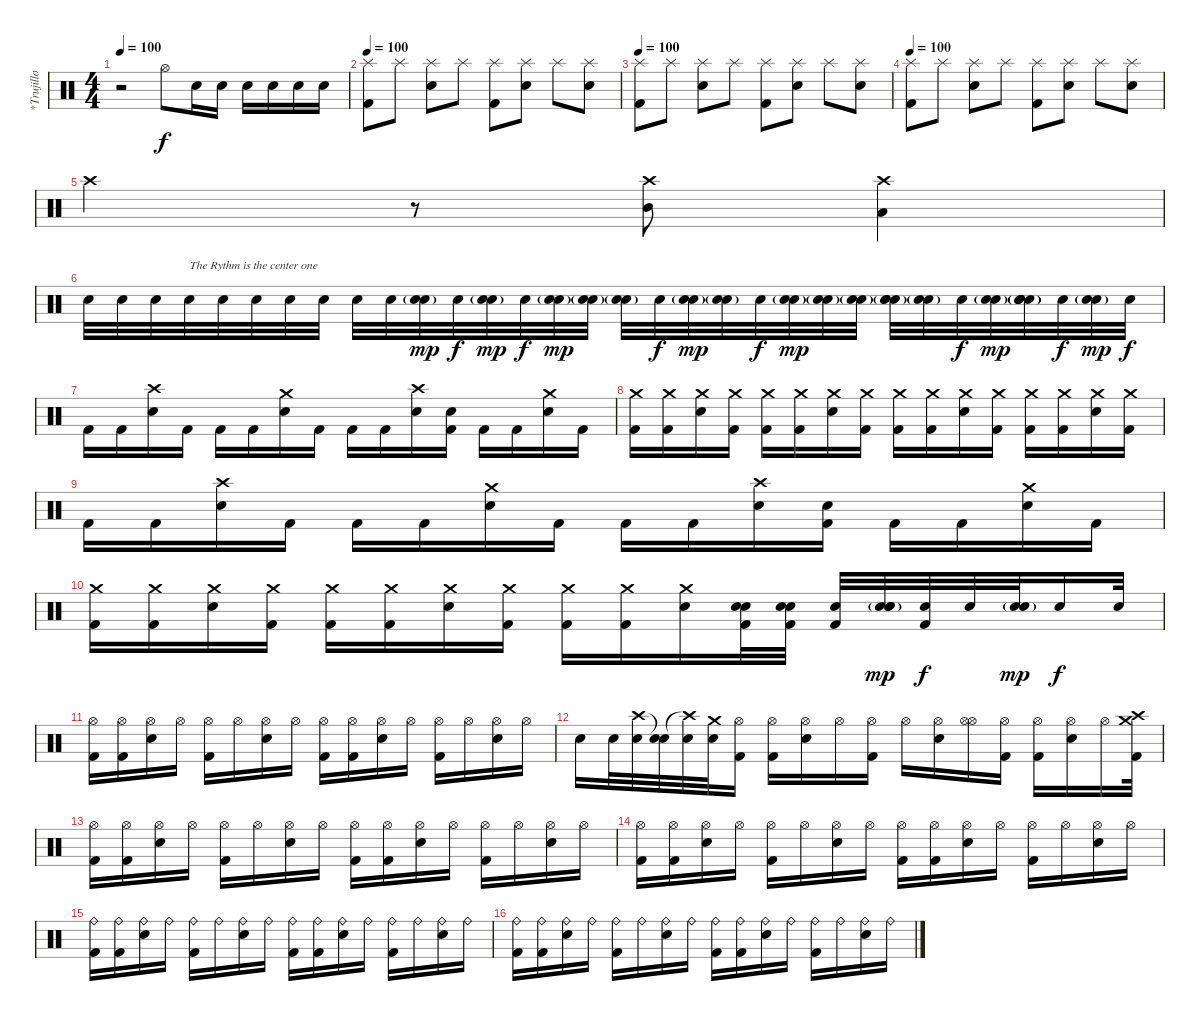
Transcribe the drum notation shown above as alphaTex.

\track ("*Trujillo" "*Trujillo") {instrument percussion}
\staff {score}
\articulation defaults
\ts (4 4)
\tempo 100
\clef neutral
\ks c
r.2{dy f} "Hi-Hat (open)".8 "Electric Snare (hit)".16 "Electric Snare (hit)".16 "Electric Snare (hit)".16 "Electric Snare (hit)".16 "Electric Snare (hit)".16 "Electric Snare (hit)".16 |
\tempo 100
("Splash (hit)" "Kick (hit) 2").8 "Splash (hit)".8 ("Splash (hit)" "Electric Snare (hit)").8 "Splash (hit)".8 ("Splash (hit)" "Kick (hit) 2").8 ("Splash (hit)" "Electric Snare (hit)").8 "Splash (hit)".8 ("Splash (hit)" "Electric Snare (hit)").8 |
\tempo 100
("Splash (hit)" "Kick (hit) 2").8 "Splash (hit)".8 ("Splash (hit)" "Electric Snare (hit)").8 "Splash (hit)".8 ("Splash (hit)" "Kick (hit) 2").8 ("Splash (hit)" "Electric Snare (hit)").8 "Splash (hit)".8 ("Splash (hit)" "Electric Snare (hit)").8 |
\tempo 100
("Splash (hit)" "Kick (hit) 2").8 "Splash (hit)".8 ("Splash (hit)" "Electric Snare (hit)").8 "Splash (hit)".8 ("Splash (hit)" "Kick (hit) 2").8 ("Splash (hit)" "Electric Snare (hit)").8 "Splash (hit)".8 ("Splash (hit)" "Electric Snare (hit)").8 |
"Crash high (hit)".2 r.8 ("Crash high (hit)" "Mid Tom (hit)").8 ("Crash high (hit)" "Low Tom (hit)").4{volume 0} |
"Electric Snare (hit)".32{volume 16} "Electric Snare (hit)".32 "Electric Snare (hit)".32 "Electric Snare (hit)".32{txt "The Rythm is the center one"} "Electric Snare (hit)".32 "Electric Snare (hit)".32 "Electric Snare (hit)".32 "Electric Snare (hit)".32 "Electric Snare (hit)".32 "Electric Snare (hit)".32 ("Electric Snare (hit)" "Electric Snare (hit)"{g}).32{dy mp} "Electric Snare (hit)".32{dy f} ("Electric Snare (hit)"{g} "Electric Snare (hit)").32{dy mp} "Electric Snare (hit)".32{dy f} ("Electric Snare (hit)" "Electric Snare (hit)"{g}).32{dy mp} ("Electric Snare (hit)"{g} "Electric Snare (hit)").32 ("Electric Snare (hit)" "Electric Snare (hit)"{g}).32 "Electric Snare (hit)".32{dy f} ("Electric Snare (hit)" "Electric Snare (hit)"{g}).32{dy mp} ("Electric Snare (hit)"{g} "Electric Snare (hit)").32 "Electric Snare (hit)".32{dy f} ("Electric Snare (hit)" "Electric Snare (hit)"{g}).32{dy mp} ("Electric Snare (hit)"{g} "Electric Snare (hit)").32 ("Electric Snare (hit)" "Electric Snare (hit)"{g}).32 ("Electric Snare (hit)"{g} "Electric Snare (hit)"{g} "Electric Snare (hit)").32 ("Electric Snare (hit)" "Electric Snare (hit)"{g}).32 "Electric Snare (hit)".32{dy f} ("Electric Snare (hit)"{g} "Electric Snare (hit)").32{dy mp} ("Electric Snare (hit)"{g} "Electric Snare (hit)"{g} "Electric Snare (hit)" "Electric Snare (hit)"{g}).32 "Electric Snare (hit)".32{dy f} ("Electric Snare (hit)" "Electric Snare (hit)"{g}).32{dy mp} "Electric Snare (hit)".32{dy f} |
"Kick (hit) 2".16 "Kick (hit) 2".16 ("Crash high (hit)" "Electric Snare (hit)").16 "Kick (hit) 2".16 "Kick (hit) 2".16 "Kick (hit) 2".16 ("Crash medium (hit)" "Electric Snare (hit)").16 "Kick (hit) 2".16 "Kick (hit) 2".16 "Kick (hit) 2".16 ("Crash high (hit)" "Electric Snare (hit)").16 ("Snare (hit)" "Kick (hit) 2").16 "Kick (hit) 2".16 "Kick (hit) 2".16 ("Crash medium (hit)" "Electric Snare (hit)").16 "Kick (hit) 2".16 |
("Crash medium (hit)" "Kick (hit) 2").16 ("Crash medium (hit)"{x} "Kick (hit) 2").16 ("Crash medium (hit)" "Electric Snare (hit)").16 ("Crash medium (hit)" "Kick (hit) 2").16 ("Crash medium (hit)"{x} "Kick (hit) 2").16 ("Crash medium (hit)"{x} "Kick (hit) 2").16 ("Crash medium (hit)" "Electric Snare (hit)").16 ("Crash medium (hit)"{x} "Kick (hit) 2").16 ("Crash medium (hit)"{x} "Kick (hit) 2").16 ("Crash medium (hit)" "Kick (hit) 2").16 ("Crash medium (hit)" "Electric Snare (hit)").16 ("Crash medium (hit)"{x} "Kick (hit) 2").16 ("Crash medium (hit)" "Kick (hit) 2").16 ("Crash medium (hit)"{x} "Kick (hit) 2").16 ("Crash medium (hit)" "Electric Snare (hit)").16 ("Crash medium (hit)" "Kick (hit) 2").16 |
"Kick (hit) 2".16 "Kick (hit) 2".16 ("Crash high (hit)" "Electric Snare (hit)").16 "Kick (hit) 2".16 "Kick (hit) 2".16 "Kick (hit) 2".16 ("Crash medium (hit)" "Electric Snare (hit)").16 "Kick (hit) 2".16 "Kick (hit) 2".16 "Kick (hit) 2".16 ("Crash high (hit)" "Electric Snare (hit)").16 ("Snare (hit)" "Kick (hit) 2").16 "Kick (hit) 2".16 "Kick (hit) 2".16 ("Crash medium (hit)" "Electric Snare (hit)").16 "Kick (hit) 2".16 |
("Crash medium (hit)" "Kick (hit) 2").16 ("Crash medium (hit)"{x} "Kick (hit) 2").16 ("Crash medium (hit)" "Electric Snare (hit)").16 ("Crash medium (hit)" "Kick (hit) 2").16 ("Crash medium (hit)"{x} "Kick (hit) 2").16 ("Crash medium (hit)"{x} "Kick (hit) 2").16 ("Crash medium (hit)"{x} "Electric Snare (hit)").16 ("Crash medium (hit)" "Kick (hit) 2").16 ("Crash medium (hit)"{x} "Kick (hit) 2").16 ("Crash medium (hit)" "Kick (hit) 2").16 ("Crash medium (hit)" "Electric Snare (hit)").16 ("Electric Snare (hit)" "Snare (hit)"{x} "Kick (hit) 2"{x}).32 ("Electric Snare (hit)" "Snare (hit)"{x} "Kick (hit) 2"{x}).32 ("Electric Snare (hit)" "Kick (hit) 2"{x}).32 ("Electric Snare (hit)" "Electric Snare (hit)"{g} "Electric Snare (hit)"{x}).32{dy mp} ("Electric Snare (hit)" "Kick (hit) 2"{x}).32{dy f} "Electric Snare (hit)".32 ("Electric Snare (hit)" "Electric Snare (hit)"{g}).32{dy mp} "Electric Snare (hit)".16{dy f} "Electric Snare (hit)".32 |
("Hi-Hat (open)" "Kick (hit) 2").16 ("Hi-Hat (open)" "Kick (hit) 2").16 ("Hi-Hat (open)" "Electric Snare (hit)").16 "Hi-Hat (open)".16 ("Hi-Hat (open)" "Kick (hit) 2").16 "Hi-Hat (open)".16 ("Hi-Hat (open)" "Electric Snare (hit)").16 "Hi-Hat (open)".16 ("Hi-Hat (open)" "Kick (hit) 2").16 ("Hi-Hat (open)" "Kick (hit) 2").16 ("Hi-Hat (open)" "Electric Snare (hit)").16 "Hi-Hat (open)".16 ("Hi-Hat (open)" "Kick (hit) 2").16 "Hi-Hat (open)".16 ("Hi-Hat (open)" "Electric Snare (hit)").16 "Hi-Hat (open)".16 |
"Electric Snare (hit)".16 "Electric Snare (hit)".32 ("Crash high (hit)" "Electric Snare (hit)").32 ("Snare (hit)"{t} "Electric Snare (hit)").32 ("Crash high (hit)"{t} "Electric Snare (hit)").32 ("Crash medium (hit)" "Electric Snare (hit)").32 ("Hi-Hat (open)" "Kick (hit) 2").16 ("Hi-Hat (open)" "Kick (hit) 2").16 ("Hi-Hat (open)" "Electric Snare (hit)").16 "Hi-Hat (open)".16 ("Hi-Hat (open)" "Kick (hit) 2").16 "Hi-Hat (open)".16 ("Hi-Hat (open)" "Electric Snare (hit)").16 ("Hi-Hat (open)"{x} "Hi-Hat (open)").16 ("Hi-Hat (open)" "Kick (hit) 2").16 ("Hi-Hat (open)" "Kick (hit) 2").16 ("Hi-Hat (open)" "Electric Snare (hit)").16 "Hi-Hat (open)".16 ("Crash high (hit)" "Crash medium (hit)" "Kick (hit) 2"{x}).32 |
("Hi-Hat (open)" "Kick (hit) 2").16 ("Hi-Hat (open)" "Kick (hit) 2").16 ("Hi-Hat (open)" "Electric Snare (hit)").16 "Hi-Hat (open)".16 ("Hi-Hat (open)" "Kick (hit) 2").16 "Hi-Hat (open)".16 ("Hi-Hat (open)" "Electric Snare (hit)").16 "Hi-Hat (open)".16 ("Hi-Hat (open)" "Kick (hit) 2").16 ("Hi-Hat (open)" "Kick (hit) 2").16 ("Hi-Hat (open)" "Electric Snare (hit)").16 "Hi-Hat (open)".16 ("Hi-Hat (open)" "Kick (hit) 2").16 "Hi-Hat (open)".16 ("Hi-Hat (open)" "Electric Snare (hit)").16 "Hi-Hat (open)".16 |
("Hi-Hat (open)" "Kick (hit) 2").16 ("Hi-Hat (open)" "Kick (hit) 2").16 ("Hi-Hat (open)" "Electric Snare (hit)").16 "Hi-Hat (open)".16 ("Hi-Hat (open)" "Kick (hit) 2").16 "Hi-Hat (open)".16 ("Hi-Hat (open)" "Electric Snare (hit)").16 "Hi-Hat (open)".16 ("Hi-Hat (open)" "Kick (hit) 2").16 ("Hi-Hat (open)" "Kick (hit) 2").16 ("Hi-Hat (open)" "Electric Snare (hit)").16 "Hi-Hat (open)".16 ("Hi-Hat (open)" "Kick (hit) 2").16 "Hi-Hat (open)".16 ("Hi-Hat (open)" "Electric Snare (hit)").16 "Hi-Hat (open)".16 |
("Ride (bell)" "Kick (hit) 2").16 ("Ride (bell)" "Kick (hit) 2").16 ("Ride (bell)" "Electric Snare (hit)").16 "Ride (bell)".16 ("Ride (bell)" "Kick (hit) 2").16 "Ride (bell)".16 ("Ride (bell)" "Electric Snare (hit)").16 "Ride (bell)".16 ("Ride (bell)" "Kick (hit) 2").16 ("Ride (bell)" "Kick (hit) 2").16 ("Ride (bell)" "Electric Snare (hit)").16 "Ride (bell)".16 ("Ride (bell)" "Kick (hit) 2").16 "Ride (bell)".16 ("Ride (bell)" "Electric Snare (hit)").16 "Ride (bell)".16 |
("Ride (bell)" "Kick (hit) 2").16 ("Ride (bell)" "Kick (hit) 2").16 ("Ride (bell)" "Electric Snare (hit)").16 "Ride (bell)".16 ("Ride (bell)" "Kick (hit) 2").16 "Ride (bell)".16 ("Ride (bell)" "Electric Snare (hit)").16 "Ride (bell)".16 ("Ride (bell)" "Kick (hit) 2").16 ("Ride (bell)" "Kick (hit) 2").16 ("Ride (bell)" "Electric Snare (hit)").16 "Ride (bell)".16 ("Ride (bell)" "Kick (hit) 2").16 "Ride (bell)".16 ("Ride (bell)" "Electric Snare (hit)").16 "Ride (bell)".16
